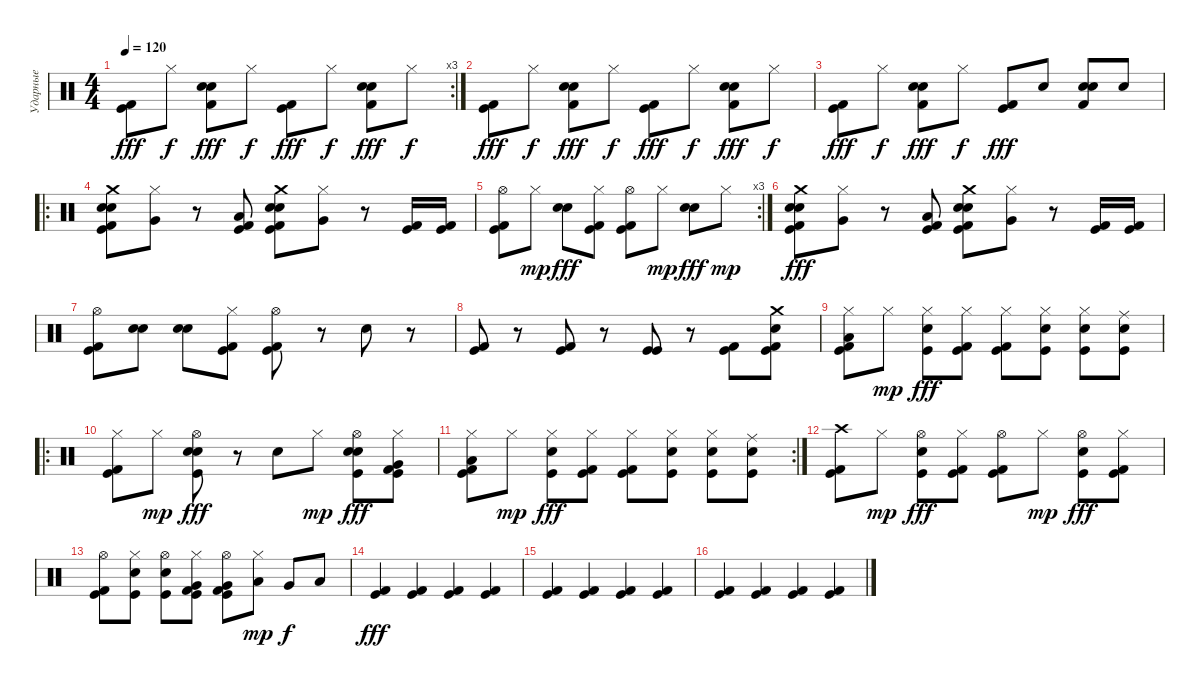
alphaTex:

\track ("Ударные" "Ударные") {instrument percussion}
\staff {score}
\articulation defaults
\rc 3
\ts (4 4)
\tempo 120
\clef neutral
\ks c
("Kick (hit) 2" "Kick (hit)").8{dy fff} "Hi-Hat (closed)".8{dy f} ("Snare (hit) 2" "Electric Snare (hit)" "Kick (hit) 2").8{dy fff} "Hi-Hat (closed)".8{dy f} ("Kick (hit) 2" "Kick (hit)").8{dy fff} "Hi-Hat (closed)".8{dy f} ("Snare (hit) 2" "Electric Snare (hit)" "Kick (hit) 2").8{dy fff} "Hi-Hat (closed)".8{dy f} |
("Kick (hit) 2" "Kick (hit)").8{dy fff} "Hi-Hat (closed)".8{dy f} ("Snare (hit) 2" "Electric Snare (hit)" "Kick (hit) 2").8{dy fff} "Hi-Hat (closed)".8{dy f} ("Kick (hit) 2" "Kick (hit)").8{dy fff} "Hi-Hat (closed)".8{dy f} ("Snare (hit) 2" "Electric Snare (hit)" "Kick (hit) 2").8{dy fff} "Hi-Hat (closed)".8{dy f} |
("Kick (hit) 2" "Kick (hit)").8{dy fff} "Hi-Hat (closed)".8{dy f} ("Snare (hit) 2" "Electric Snare (hit)" "Kick (hit) 2").8{dy fff} "Hi-Hat (closed)".8{dy f} ("Kick (hit) 2" "Kick (hit)").8{dy fff} "Snare (hit) 2".8 ("Snare (hit) 2" "Electric Snare (hit)" "Kick (hit) 2").8 "Snare (hit) 2".8 |
\ro
("Crash medium (hit)" "Electric Snare (hit)" "Snare (hit) 2" "Kick (hit)" "Kick (hit) 2").8 ("Hi-Hat (closed)" "Very Low Tom (hit)").8 r.8 ("Kick (hit) 2" "Low Tom (hit)" "Kick (hit)").8 ("Crash medium (hit)" "Snare (hit) 2" "Electric Snare (hit)" "Kick (hit)" "Kick (hit) 2").8 ("Hi-Hat (closed)" "Very Low Tom (hit)").8 r.8 ("Kick (hit) 2" "Kick (hit)").16 ("Kick (hit)" "Kick (hit) 2").16 |
\rc 3
("Hi-Hat (open)" "Kick (hit) 2" "Kick (hit)").8 "Hi-Hat (closed)".8{dy mp} ("Electric Snare (hit)" "Snare (hit) 2").8{dy fff} ("Hi-Hat (closed)" "Kick (hit)" "Kick (hit) 2").8 ("Hi-Hat (open)" "Kick (hit)" "Kick (hit) 2").8 "Hi-Hat (closed)".8{dy mp} ("Electric Snare (hit)" "Snare (hit) 2").8{dy fff} "Hi-Hat (closed)".8{dy mp} |
("Crash medium (hit)" "Electric Snare (hit)" "Snare (hit) 2" "Kick (hit)" "Kick (hit) 2").8{dy fff} ("Hi-Hat (closed)" "Very Low Tom (hit)").8 r.8 ("Kick (hit) 2" "Low Tom (hit)" "Kick (hit)").8 ("Crash medium (hit)" "Snare (hit) 2" "Electric Snare (hit)" "Kick (hit)" "Kick (hit) 2").8 ("Hi-Hat (closed)" "Very Low Tom (hit)").8 r.8 ("Kick (hit) 2" "Kick (hit)").16 ("Kick (hit)" "Kick (hit) 2").16 |
("Hi-Hat (open)" "Kick (hit)" "Kick (hit) 2").8 ("Electric Snare (hit)" "Snare (hit) 2").8 ("Electric Snare (hit)" "Snare (hit) 2").8 ("Hi-Hat (closed)" "Kick (hit)" "Kick (hit) 2").8 ("Hi-Hat (open)" "Kick (hit)" "Kick (hit) 2").8 r.8 "Snare (hit) 2".8 r.8 |
("Kick (hit)" "Kick (hit) 2").8 r.8 ("Kick (hit) 2" "Kick (hit)").8 r.8 ("Kick (hit)" "Kick (hit)").8 r.8 ("Kick (hit) 2" "Kick (hit)").8 ("Crash medium (hit)" "Snare (hit) 2" "Kick (hit) 2" "Kick (hit)").8 |
("Hi-Hat (closed)" "Low Tom (hit)" "Kick (hit)" "Kick (hit) 2").8 "Hi-Hat (closed)".8{dy mp} ("Hi-Hat (closed)" "Electric Snare (hit)" "Kick (hit)").8{dy fff} ("Hi-Hat (closed)" "Kick (hit)" "Kick (hit) 2").8 ("Hi-Hat (closed)" "Kick (hit)" "Kick (hit) 2").8 ("Hi-Hat (closed)" "Snare (hit) 2" "Kick (hit)").8 ("Hi-Hat (closed)" "Electric Snare (hit)" "Kick (hit)").8 ("Ride (middle)" "Snare (hit) 2" "Kick (hit)").8 |
\ro
("Hi-Hat (closed)" "Kick (hit)" "Kick (hit) 2").8 "Hi-Hat (closed)".8{dy mp} ("Hi-Hat (open)" "Electric Snare (hit)" "Snare (hit) 2" "Kick (hit)").8{dy fff} r.8 "Snare (hit) 2".8 "Hi-Hat (closed)".8{dy mp} ("Hi-Hat (open)" "Electric Snare (hit)" "Snare (hit) 2" "Kick (hit)").8{dy fff} ("Hi-Hat (closed)" "Very Low Tom (hit)" "Kick (hit) 2" "Kick (hit)").8 |
\rc 2
("Hi-Hat (closed)" "Low Tom (hit)" "Kick (hit)" "Kick (hit) 2").8 "Hi-Hat (closed)".8{dy mp} ("Hi-Hat (closed)" "Electric Snare (hit)" "Kick (hit)").8{dy fff} ("Hi-Hat (closed)" "Kick (hit)" "Kick (hit) 2").8 ("Hi-Hat (closed)" "Kick (hit)" "Kick (hit) 2").8 ("Hi-Hat (closed)" "Snare (hit) 2" "Kick (hit)").8 ("Hi-Hat (closed)" "Electric Snare (hit)" "Kick (hit)").8 ("Ride (middle)" "Snare (hit) 2" "Kick (hit)").8 |
("Crash high (hit)" "Kick (hit)" "Kick (hit) 2").8 "Hi-Hat (closed)".8{dy mp} ("Hi-Hat (open)" "Snare (hit) 2" "Kick (hit)").8{dy fff} ("Hi-Hat (closed)" "Kick (hit)" "Kick (hit) 2").8 ("Hi-Hat (open)" "Kick (hit)" "Kick (hit) 2").8 "Hi-Hat (closed)".8{dy mp} ("Hi-Hat (open)" "Snare (hit) 2" "Kick (hit)").8{dy fff} ("Hi-Hat (closed)" "Kick (hit)" "Kick (hit) 2").8 |
("Hi-Hat (open)" "Kick (hit)" "Kick (hit) 2").8 ("Hi-Hat (closed)" "Snare (hit) 2" "Kick (hit)").8 ("Hi-Hat (open)" "Snare (hit) 2" "Kick (hit)").8 ("Hi-Hat (closed)" "Very Low Tom (hit)" "Kick (hit)" "Kick (hit) 2").8 ("Hi-Hat (open)" "Very Low Tom (hit)" "Kick (hit)" "Kick (hit) 2").8 ("Hi-Hat (closed)" "Low Floor Tom (hit)").8{dy mp} "Very Low Tom (hit)".8{dy f} "Low Tom (hit)".8 |
("Kick (hit) 2" "Kick (hit)").4{dy fff} ("Kick (hit)" "Kick (hit) 2").4 ("Kick (hit) 2" "Kick (hit)").4 ("Kick (hit)" "Kick (hit) 2").4 |
("Kick (hit) 2" "Kick (hit)").4 ("Kick (hit)" "Kick (hit) 2").4 ("Kick (hit) 2" "Kick (hit)").4 ("Kick (hit)" "Kick (hit) 2").4 |
("Kick (hit) 2" "Kick (hit)").4 ("Kick (hit)" "Kick (hit) 2").4 ("Kick (hit) 2" "Kick (hit)").4 ("Kick (hit)" "Kick (hit) 2").4
